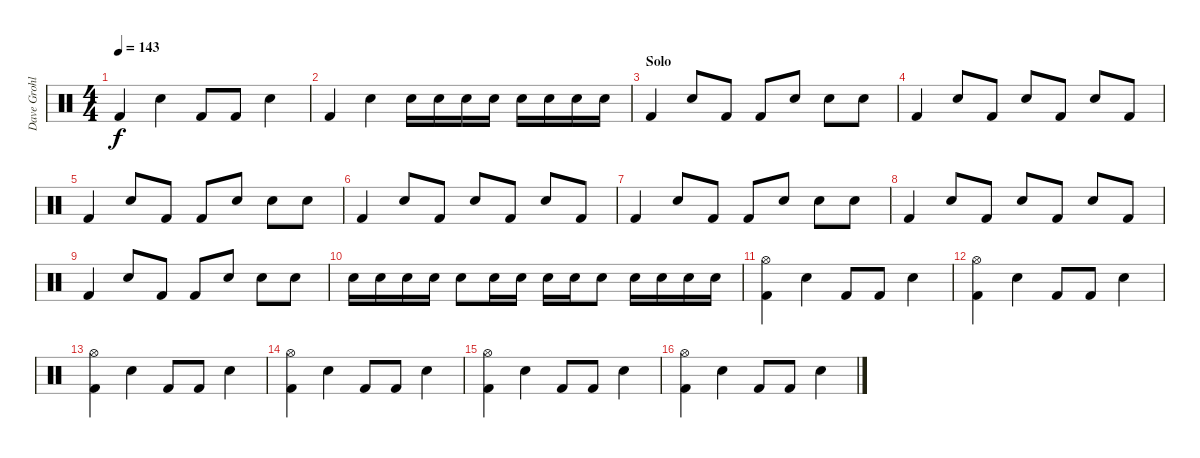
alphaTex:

\track ("Dave Grohl" "Dave Grohl") {instrument percussion}
\staff {score}
\articulation defaults
\ts (4 4)
\tempo 143
\clef neutral
\ks c "Kick (hit) 2".4{dy f} "Snare (hit) 2".4 "Kick (hit) 2".8 "Kick (hit) 2".8 "Snare (hit) 2".4
|
"Kick (hit) 2".4 "Snare (hit) 2".4 "Snare (hit) 2".16 "Snare (hit) 2".16 "Snare (hit) 2".16 "Snare (hit) 2".16 "Snare (hit) 2".16 "Snare (hit) 2".16 "Snare (hit) 2".16 "Snare (hit) 2".16 |
\section ("" "Solo")
"Kick (hit) 2".4 "Snare (hit) 2".8 "Kick (hit) 2".8 "Kick (hit) 2".8 "Snare (hit) 2".8 "Snare (hit) 2".8 "Snare (hit) 2".8 |
"Kick (hit) 2".4 "Snare (hit) 2".8 "Kick (hit) 2".8 "Snare (hit) 2".8 "Kick (hit) 2".8 "Snare (hit) 2".8 "Kick (hit) 2".8 |
"Kick (hit) 2".4 "Snare (hit) 2".8 "Kick (hit) 2".8 "Kick (hit) 2".8 "Snare (hit) 2".8 "Snare (hit) 2".8 "Snare (hit) 2".8 |
"Kick (hit) 2".4 "Snare (hit) 2".8 "Kick (hit) 2".8 "Snare (hit) 2".8 "Kick (hit) 2".8 "Snare (hit) 2".8 "Kick (hit) 2".8 |
"Kick (hit) 2".4 "Snare (hit) 2".8 "Kick (hit) 2".8 "Kick (hit) 2".8 "Snare (hit) 2".8 "Snare (hit) 2".8 "Snare (hit) 2".8 |
"Kick (hit) 2".4 "Snare (hit) 2".8 "Kick (hit) 2".8 "Snare (hit) 2".8 "Kick (hit) 2".8 "Snare (hit) 2".8 "Kick (hit) 2".8 |
"Kick (hit) 2".4 "Snare (hit) 2".8 "Kick (hit) 2".8 "Kick (hit) 2".8 "Snare (hit) 2".8 "Snare (hit) 2".8 "Snare (hit) 2".8 |
"Snare (hit) 2".16 "Snare (hit) 2".16 "Snare (hit) 2".16 "Snare (hit) 2".16 "Snare (hit) 2".8 "Snare (hit) 2".16 "Snare (hit) 2".16 "Snare (hit) 2".16 "Snare (hit) 2".16 "Snare (hit) 2".8 "Snare (hit) 2".16 "Snare (hit) 2".16 "Snare (hit) 2".16 "Snare (hit) 2".16 |
("Hi-Hat (open)" "Kick (hit) 2").4 "Snare (hit) 2".4 "Kick (hit) 2".8 "Kick (hit) 2".8 "Snare (hit) 2".4 |
("Hi-Hat (open)" "Kick (hit) 2").4 "Snare (hit) 2".4 "Kick (hit) 2".8 "Kick (hit) 2".8 "Snare (hit) 2".4 |
("Hi-Hat (open)" "Kick (hit) 2").4 "Snare (hit) 2".4 "Kick (hit) 2".8 "Kick (hit) 2".8 "Snare (hit) 2".4 |
("Hi-Hat (open)" "Kick (hit) 2").4 "Snare (hit) 2".4 "Kick (hit) 2".8 "Kick (hit) 2".8 "Snare (hit) 2".4 |
("Hi-Hat (open)" "Kick (hit) 2").4 "Snare (hit) 2".4 "Kick (hit) 2".8 "Kick (hit) 2".8 "Snare (hit) 2".4 |
("Hi-Hat (open)" "Kick (hit) 2").4 "Snare (hit) 2".4 "Kick (hit) 2".8 "Kick (hit) 2".8 "Snare (hit) 2".4
